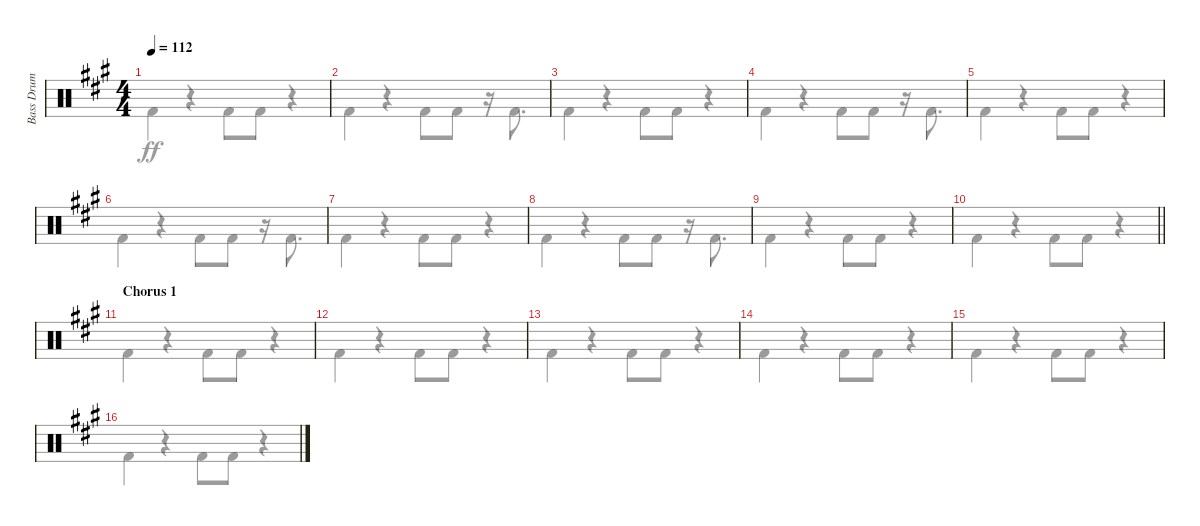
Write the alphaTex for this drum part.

\track ("Bass Drum" "Bass Drum") {instrument percussion}
\staff {score}
\articulation defaults
\voice
\ts (4 4)
\tempo 112
\clef neutral
\ks f#minor
|
|
|
|
|
|
|
|
|
\barLineRight lightlight
|
\section ("" "Chorus 1")
|
|
|
|
|
\voice
\clef neutral
\ks f#minor "Kick (hit) 2".4{dy ff}
r.4 "Kick (hit) 2".8 "Kick (hit) 2".8 r.4 |
"Kick (hit) 2".4 r.4 "Kick (hit) 2".8 "Kick (hit) 2".8 r.16 "Kick (hit) 2".8{d} |
"Kick (hit) 2".4 r.4 "Kick (hit) 2".8 "Kick (hit) 2".8 r.4 |
"Kick (hit) 2".4 r.4 "Kick (hit) 2".8 "Kick (hit) 2".8 r.16 "Kick (hit) 2".8{d} |
"Kick (hit) 2".4 r.4 "Kick (hit) 2".8 "Kick (hit) 2".8 r.4 |
"Kick (hit) 2".4 r.4 "Kick (hit) 2".8 "Kick (hit) 2".8 r.16 "Kick (hit) 2".8{d} |
"Kick (hit) 2".4 r.4 "Kick (hit) 2".8 "Kick (hit) 2".8 r.4 |
"Kick (hit) 2".4 r.4 "Kick (hit) 2".8 "Kick (hit) 2".8 r.16 "Kick (hit) 2".8{d} |
"Kick (hit) 2".4 r.4 "Kick (hit) 2".8 "Kick (hit) 2".8 r.4 |
\barLineRight lightlight "Kick (hit) 2".4
r.4 "Kick (hit) 2".8 "Kick (hit) 2".8 r.4 |
"Kick (hit) 2".4 r.4 "Kick (hit) 2".8 "Kick (hit) 2".8 r.4 |
"Kick (hit) 2".4 r.4 "Kick (hit) 2".8 "Kick (hit) 2".8 r.4 |
"Kick (hit) 2".4 r.4 "Kick (hit) 2".8 "Kick (hit) 2".8 r.4 |
"Kick (hit) 2".4 r.4 "Kick (hit) 2".8 "Kick (hit) 2".8 r.4 |
"Kick (hit) 2".4 r.4 "Kick (hit) 2".8 "Kick (hit) 2".8 r.4 |
"Kick (hit) 2".4 r.4 "Kick (hit) 2".8 "Kick (hit) 2".8 r.4
